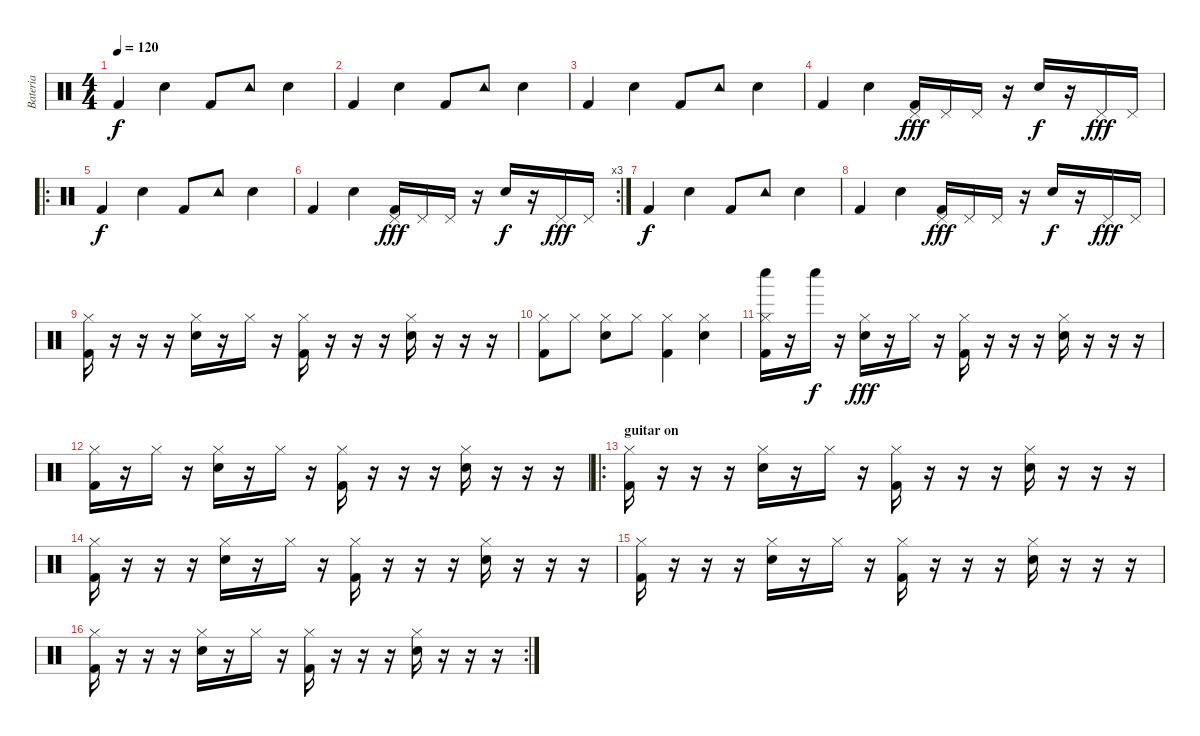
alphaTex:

\track ("Bateria" "Bateria") {instrument percussion}
\staff {score}
\articulation defaults
\ts (4 4)
\tempo 120
\clef neutral
\ks c "Kick (hit) 2".4{dy f} "Electric Snare (hit)".4 "Kick (hit) 2".8 "Tambourine (hit)".8 "Electric Snare (hit)".4
|
"Kick (hit) 2".4 "Electric Snare (hit)".4 "Kick (hit) 2".8 "Tambourine (hit)".8 "Electric Snare (hit)".4 |
"Kick (hit) 2".4 "Electric Snare (hit)".4 "Kick (hit) 2".8 "Tambourine (hit)".8 "Electric Snare (hit)".4 |
"Kick (hit) 2".4 "Electric Snare (hit)".4 ("Pedal Hi-Hat (hit)" "Kick (hit) 2").16{dy fff} "Pedal Hi-Hat (hit)".16 "Pedal Hi-Hat (hit)".16 r.16 "Electric Snare (hit)".16{dy f} r.16 "Pedal Hi-Hat (hit)".16{dy fff} "Pedal Hi-Hat (hit)".16 |
\ro "Kick (hit) 2".4{dy f} "Electric Snare (hit)".4 "Kick (hit) 2".8 "Tambourine (hit)".8 "Electric Snare (hit)".4
|
\rc 3 "Kick (hit) 2".4 "Electric Snare (hit)".4
("Pedal Hi-Hat (hit)" "Kick (hit) 2").16{dy fff} "Pedal Hi-Hat (hit)".16 "Pedal Hi-Hat (hit)".16 r.16 "Electric Snare (hit)".16{dy f} r.16 "Pedal Hi-Hat (hit)".16{dy fff} "Pedal Hi-Hat (hit)".16 |
"Kick (hit) 2".4{dy f} "Electric Snare (hit)".4 "Kick (hit) 2".8 "Tambourine (hit)".8 "Electric Snare (hit)".4 |
"Kick (hit) 2".4 "Electric Snare (hit)".4 ("Pedal Hi-Hat (hit)" "Kick (hit) 2").16{dy fff} "Pedal Hi-Hat (hit)".16 "Pedal Hi-Hat (hit)".16 r.16 "Electric Snare (hit)".16{dy f} r.16 "Pedal Hi-Hat (hit)".16{dy fff} "Pedal Hi-Hat (hit)".16 |
("Hi-Hat (closed)" "Kick (hit) 2").16 r.16 r.16 r.16 ("Hi-Hat (closed)" "Electric Snare (hit)").16 r.16 "Hi-Hat (closed)".16 r.16 ("Hi-Hat (closed)" "Kick (hit) 2").16 r.16 r.16 r.16 ("Hi-Hat (closed)" "Electric Snare (hit)").16 r.16 r.16 r.16 |
("Hi-Hat (closed)" "Kick (hit) 2").8 "Hi-Hat (closed)".8 ("Hi-Hat (closed)" "Electric Snare (hit)").8 "Hi-Hat (closed)".8 ("Hi-Hat (closed)" "Kick (hit) 2").4 ("Hi-Hat (closed)" "Electric Snare (hit)").4 |
("Hi-Hat (closed)" "Whistle low (hit)" "Kick (hit) 2").16 r.16 "Whistle low (hit)".16{dy f} r.16 ("Hi-Hat (closed)" "Electric Snare (hit)").16{dy fff} r.16 "Hi-Hat (closed)".16 r.16 ("Hi-Hat (closed)" "Kick (hit) 2").16 r.16 r.16 r.16 ("Hi-Hat (closed)" "Electric Snare (hit)").16 r.16 r.16 r.16 |
("Hi-Hat (closed)" "Kick (hit) 2").16 r.16 "Hi-Hat (closed)".16 r.16 ("Hi-Hat (closed)" "Electric Snare (hit)").16 r.16 "Hi-Hat (closed)".16 r.16 ("Hi-Hat (closed)" "Kick (hit) 2").16 r.16 r.16 r.16 ("Hi-Hat (closed)" "Electric Snare (hit)").16 r.16 r.16 r.16 |
\ro
\section ("" "guitar on")
("Hi-Hat (closed)" "Kick (hit) 2").16 r.16 r.16 r.16 ("Hi-Hat (closed)" "Electric Snare (hit)").16 r.16 "Hi-Hat (closed)".16 r.16 ("Hi-Hat (closed)" "Kick (hit) 2").16 r.16 r.16 r.16 ("Hi-Hat (closed)" "Electric Snare (hit)").16 r.16 r.16 r.16 |
("Hi-Hat (closed)" "Kick (hit) 2").16 r.16 r.16 r.16 ("Hi-Hat (closed)" "Electric Snare (hit)").16 r.16 "Hi-Hat (closed)".16 r.16 ("Hi-Hat (closed)" "Kick (hit) 2").16 r.16 r.16 r.16 ("Hi-Hat (closed)" "Electric Snare (hit)").16 r.16 r.16 r.16 |
("Hi-Hat (closed)" "Kick (hit) 2").16 r.16 r.16 r.16 ("Hi-Hat (closed)" "Electric Snare (hit)").16 r.16 "Hi-Hat (closed)".16 r.16 ("Hi-Hat (closed)" "Kick (hit) 2").16 r.16 r.16 r.16 ("Hi-Hat (closed)" "Electric Snare (hit)").16 r.16 r.16 r.16 |
\rc 2
("Hi-Hat (closed)" "Kick (hit) 2").16 r.16 r.16 r.16 ("Hi-Hat (closed)" "Electric Snare (hit)").16 r.16 "Hi-Hat (closed)".16 r.16 ("Hi-Hat (closed)" "Kick (hit) 2").16 r.16 r.16 r.16 ("Hi-Hat (closed)" "Electric Snare (hit)").16 r.16 r.16 r.16
